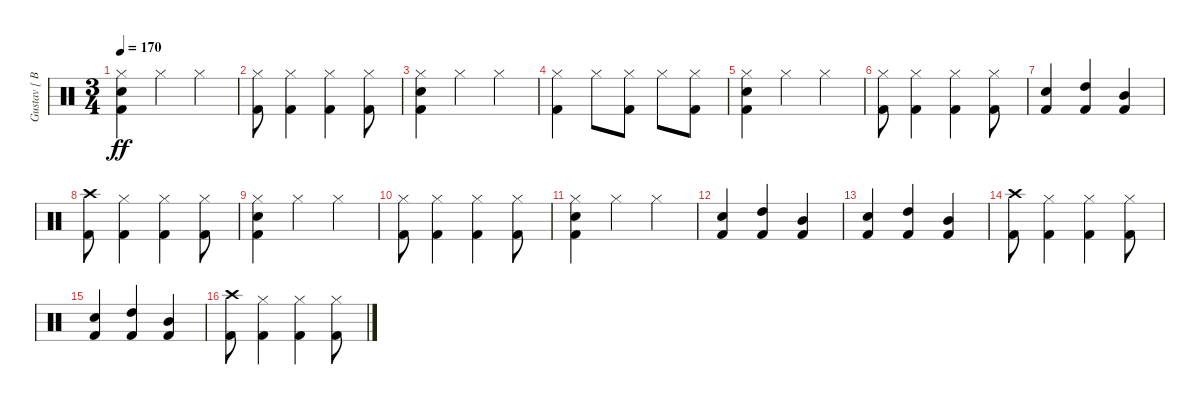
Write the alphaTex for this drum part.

\track ("Gustav [ Batterie ]" "Gustav [ B") {instrument percussion}
\staff {score}
\articulation defaults
\ts (3 4)
\tempo 170
\clef neutral
\ks c
("Hi-Hat (closed)" "Snare (hit) 2" "Kick (hit) 2").4{dy ff} "Hi-Hat (closed)".4 "Hi-Hat (closed)".4 |
("Hi-Hat (closed)" "Kick (hit) 2").8 ("Hi-Hat (closed)" "Kick (hit) 2").4 ("Hi-Hat (closed)" "Kick (hit) 2").4 ("Hi-Hat (closed)" "Kick (hit) 2").8 |
("Hi-Hat (closed)" "Snare (hit) 2" "Kick (hit) 2").4 "Hi-Hat (closed)".4 "Hi-Hat (closed)".4 |
("Hi-Hat (closed)" "Kick (hit) 2").4 "Hi-Hat (closed)".8 ("Hi-Hat (closed)" "Kick (hit) 2").8 "Hi-Hat (closed)".8 ("Hi-Hat (closed)" "Kick (hit) 2").8 |
("Hi-Hat (closed)" "Snare (hit) 2" "Kick (hit) 2").4 "Hi-Hat (closed)".4 "Hi-Hat (closed)".4 |
("Hi-Hat (closed)" "Kick (hit) 2").8 ("Hi-Hat (closed)" "Kick (hit) 2").4 ("Hi-Hat (closed)" "Kick (hit) 2").4 ("Hi-Hat (closed)" "Kick (hit) 2").8 |
("Snare (hit) 2" "Kick (hit) 2").4 ("High Tom (hit)" "Kick (hit) 2").4 ("Mid Tom (hit)" "Kick (hit) 2").4 |
("Crash high (hit)" "Kick (hit) 2").8 ("Hi-Hat (closed)" "Kick (hit) 2").4 ("Hi-Hat (closed)" "Kick (hit) 2").4 ("Hi-Hat (closed)" "Kick (hit) 2").8 |
("Hi-Hat (closed)" "Snare (hit) 2" "Kick (hit) 2").4 "Hi-Hat (closed)".4 "Hi-Hat (closed)".4 |
("Hi-Hat (closed)" "Kick (hit) 2").8 ("Hi-Hat (closed)" "Kick (hit) 2").4 ("Hi-Hat (closed)" "Kick (hit) 2").4 ("Hi-Hat (closed)" "Kick (hit) 2").8 |
("Hi-Hat (closed)" "Snare (hit) 2" "Kick (hit) 2").4 "Hi-Hat (closed)".4 "Hi-Hat (closed)".4 |
("Snare (hit) 2" "Kick (hit) 2").4 ("High Tom (hit)" "Kick (hit) 2").4 ("Mid Tom (hit)" "Kick (hit) 2").4 |
("Snare (hit) 2" "Kick (hit) 2").4 ("High Tom (hit)" "Kick (hit) 2").4 ("Mid Tom (hit)" "Kick (hit) 2").4 |
("Crash high (hit)" "Kick (hit) 2").8 ("Hi-Hat (closed)" "Kick (hit) 2").4 ("Hi-Hat (closed)" "Kick (hit) 2").4 ("Hi-Hat (closed)" "Kick (hit) 2").8 |
("Snare (hit) 2" "Kick (hit) 2").4 ("High Tom (hit)" "Kick (hit) 2").4 ("Mid Tom (hit)" "Kick (hit) 2").4 |
("Crash high (hit)" "Kick (hit) 2").8 ("Hi-Hat (closed)" "Kick (hit) 2").4 ("Hi-Hat (closed)" "Kick (hit) 2").4 ("Hi-Hat (closed)" "Kick (hit) 2").8
